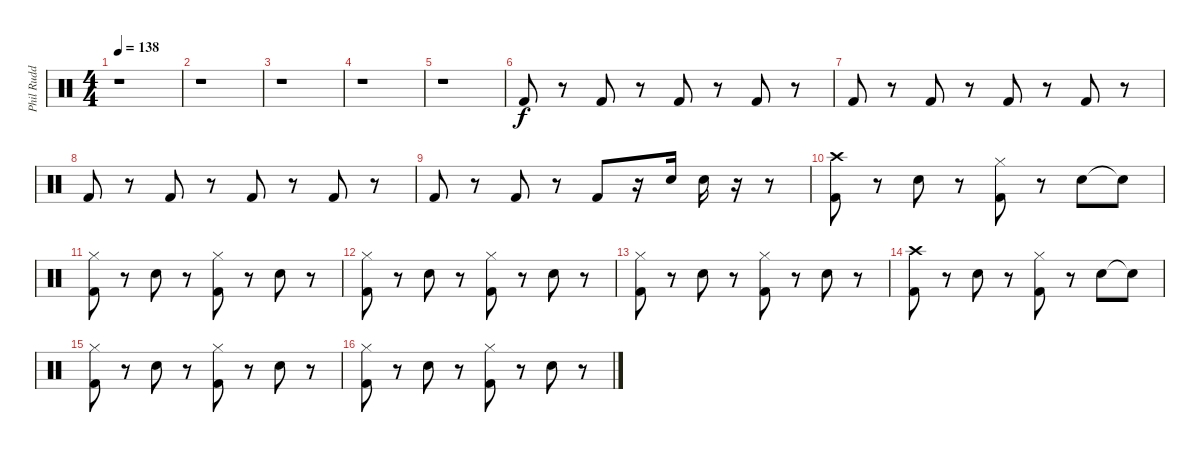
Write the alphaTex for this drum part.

\track ("Phil Rudd" "Phil Rudd") {instrument percussion}
\staff {score}
\articulation defaults
\ts (4 4)
\tempo 138
\clef neutral
\ks c
r.1{dy f} |
r.1 |
r.1 |
r.1 |
r.1 |
"Kick (hit) 2".8 r.8 "Kick (hit) 2".8 r.8 "Kick (hit) 2".8 r.8 "Kick (hit) 2".8 r.8 |
"Kick (hit) 2".8 r.8 "Kick (hit) 2".8 r.8 "Kick (hit) 2".8 r.8 "Kick (hit) 2".8 r.8 |
"Kick (hit) 2".8 r.8 "Kick (hit) 2".8 r.8 "Kick (hit) 2".8 r.8 "Kick (hit) 2".8 r.8 |
"Kick (hit) 2".8 r.8 "Kick (hit) 2".8 r.8 "Kick (hit) 2".8 r.16 "Snare (hit) 2".16 "Snare (hit) 2".16 r.16 r.8 |
("Crash high (hit)" "Kick (hit) 2").8 r.8 "Snare (hit) 2".8 r.8 ("Hi-Hat (closed)" "Kick (hit) 2").8 r.8 "Snare (hit) 2".8 "Snare (hit)"{t}.8 |
("Hi-Hat (closed)" "Kick (hit) 2").8 r.8 "Snare (hit) 2".8 r.8 ("Hi-Hat (closed)" "Kick (hit) 2").8 r.8 "Snare (hit) 2".8 r.8 |
("Hi-Hat (closed)" "Kick (hit) 2").8 r.8 "Snare (hit) 2".8 r.8 ("Hi-Hat (closed)" "Kick (hit) 2").8 r.8 "Snare (hit) 2".8 r.8 |
("Hi-Hat (closed)" "Kick (hit) 2").8 r.8 "Snare (hit) 2".8 r.8 ("Hi-Hat (closed)" "Kick (hit) 2").8 r.8 "Snare (hit) 2".8 r.8 |
("Crash high (hit)" "Kick (hit) 2").8 r.8 "Snare (hit) 2".8 r.8 ("Hi-Hat (closed)" "Kick (hit) 2").8 r.8 "Snare (hit) 2".8 "Snare (hit)"{t}.8 |
("Hi-Hat (closed)" "Kick (hit) 2").8 r.8 "Snare (hit) 2".8 r.8 ("Hi-Hat (closed)" "Kick (hit) 2").8 r.8 "Snare (hit) 2".8 r.8 |
("Hi-Hat (closed)" "Kick (hit) 2").8 r.8 "Snare (hit) 2".8 r.8 ("Hi-Hat (closed)" "Kick (hit) 2").8 r.8 "Snare (hit) 2".8 r.8
